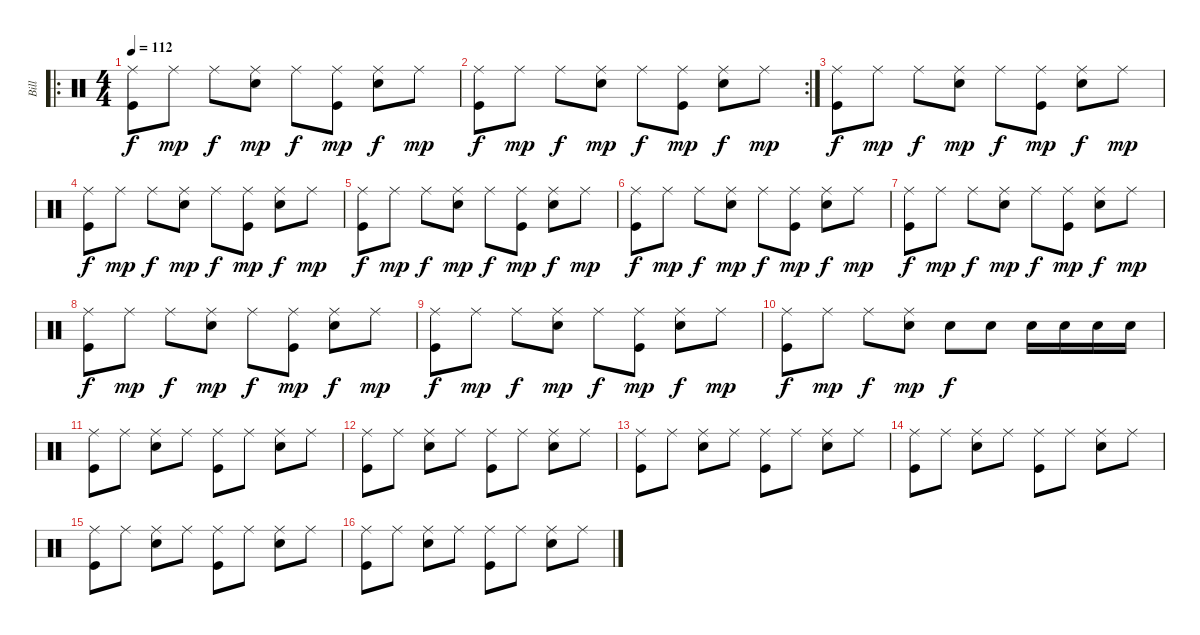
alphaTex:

\track ("Bill" "Bill") {instrument percussion}
\staff {score}
\articulation defaults
\ro
\ts (4 4)
\tempo 112
\clef neutral
\ks c
("Ride (middle)" "Kick (hit)").8{dy f} "Ride (middle)".8{dy mp} "Ride (middle)".8{dy f} ("Ride (middle)" "Snare (hit) 2").8{dy mp} "Ride (middle)".8{dy f} ("Ride (middle)" "Kick (hit)").8{dy mp} ("Ride (middle)" "Snare (hit) 2").8{dy f} "Ride (middle)".8{dy mp} |
\rc 2
("Ride (middle)" "Kick (hit)").8{dy f} "Ride (middle)".8{dy mp} "Ride (middle)".8{dy f} ("Ride (middle)" "Snare (hit) 2").8{dy mp} "Ride (middle)".8{dy f} ("Ride (middle)" "Kick (hit)").8{dy mp} ("Ride (middle)" "Snare (hit) 2").8{dy f} "Ride (middle)".8{dy mp} |
("Ride (middle)" "Kick (hit)").8{dy f} "Ride (middle)".8{dy mp} "Ride (middle)".8{dy f} ("Ride (middle)" "Snare (hit) 2").8{dy mp} "Ride (middle)".8{dy f} ("Ride (middle)" "Kick (hit)").8{dy mp} ("Ride (middle)" "Snare (hit) 2").8{dy f} "Ride (middle)".8{dy mp} |
("Ride (middle)" "Kick (hit)").8{dy f} "Ride (middle)".8{dy mp} "Ride (middle)".8{dy f} ("Ride (middle)" "Snare (hit) 2").8{dy mp} "Ride (middle)".8{dy f} ("Ride (middle)" "Kick (hit)").8{dy mp} ("Ride (middle)" "Snare (hit) 2").8{dy f} "Ride (middle)".8{dy mp} |
("Ride (middle)" "Kick (hit)").8{dy f} "Ride (middle)".8{dy mp} "Ride (middle)".8{dy f} ("Ride (middle)" "Snare (hit) 2").8{dy mp} "Ride (middle)".8{dy f} ("Ride (middle)" "Kick (hit)").8{dy mp} ("Ride (middle)" "Snare (hit) 2").8{dy f} "Ride (middle)".8{dy mp} |
("Ride (middle)" "Kick (hit)").8{dy f} "Ride (middle)".8{dy mp} "Ride (middle)".8{dy f} ("Ride (middle)" "Snare (hit) 2").8{dy mp} "Ride (middle)".8{dy f} ("Ride (middle)" "Kick (hit)").8{dy mp} ("Ride (middle)" "Snare (hit) 2").8{dy f} "Ride (middle)".8{dy mp} |
("Ride (middle)" "Kick (hit)").8{dy f} "Ride (middle)".8{dy mp} "Ride (middle)".8{dy f} ("Ride (middle)" "Snare (hit) 2").8{dy mp} "Ride (middle)".8{dy f} ("Ride (middle)" "Kick (hit)").8{dy mp} ("Ride (middle)" "Snare (hit) 2").8{dy f} "Ride (middle)".8{dy mp} |
("Ride (middle)" "Kick (hit)").8{dy f} "Ride (middle)".8{dy mp} "Ride (middle)".8{dy f} ("Ride (middle)" "Snare (hit) 2").8{dy mp} "Ride (middle)".8{dy f} ("Ride (middle)" "Kick (hit)").8{dy mp} ("Ride (middle)" "Snare (hit) 2").8{dy f} "Ride (middle)".8{dy mp} |
("Ride (middle)" "Kick (hit)").8{dy f} "Ride (middle)".8{dy mp} "Ride (middle)".8{dy f} ("Ride (middle)" "Snare (hit) 2").8{dy mp} "Ride (middle)".8{dy f} ("Ride (middle)" "Kick (hit)").8{dy mp} ("Ride (middle)" "Snare (hit) 2").8{dy f} "Ride (middle)".8{dy mp} |
("Ride (middle)" "Kick (hit)").8{dy f} "Ride (middle)".8{dy mp} "Ride (middle)".8{dy f} ("Ride (middle)" "Snare (hit) 2").8{dy mp} "Snare (hit) 2".8{dy f} "Snare (hit) 2".8 "Snare (hit) 2".16 "Snare (hit) 2".16 "Snare (hit) 2".16 "Snare (hit) 2".16 |
("Ride (middle)" "Kick (hit)").8 "Ride (middle)".8 ("Ride (middle)" "Snare (hit) 2").8 "Ride (middle)".8 ("Ride (middle)" "Kick (hit)").8 "Ride (middle)".8 ("Ride (middle)" "Snare (hit) 2").8 "Ride (middle)".8 |
("Ride (middle)" "Kick (hit)").8 "Ride (middle)".8 ("Ride (middle)" "Snare (hit) 2").8 "Ride (middle)".8 ("Ride (middle)" "Kick (hit)").8 "Ride (middle)".8 ("Ride (middle)" "Snare (hit) 2").8 "Ride (middle)".8 |
("Ride (middle)" "Kick (hit)").8 "Ride (middle)".8 ("Ride (middle)" "Snare (hit) 2").8 "Ride (middle)".8 ("Ride (middle)" "Kick (hit)").8 "Ride (middle)".8 ("Ride (middle)" "Snare (hit) 2").8 "Ride (middle)".8 |
("Ride (middle)" "Kick (hit)").8 "Ride (middle)".8 ("Ride (middle)" "Snare (hit) 2").8 "Ride (middle)".8 ("Ride (middle)" "Kick (hit)").8 "Ride (middle)".8 ("Ride (middle)" "Snare (hit) 2").8 "Ride (middle)".8 |
("Ride (middle)" "Kick (hit)").8 "Ride (middle)".8 ("Ride (middle)" "Snare (hit) 2").8 "Ride (middle)".8 ("Ride (middle)" "Kick (hit)").8 "Ride (middle)".8 ("Ride (middle)" "Snare (hit) 2").8 "Ride (middle)".8 |
("Ride (middle)" "Kick (hit)").8 "Ride (middle)".8 ("Ride (middle)" "Snare (hit) 2").8 "Ride (middle)".8 ("Ride (middle)" "Kick (hit)").8 "Ride (middle)".8 ("Ride (middle)" "Snare (hit) 2").8 "Ride (middle)".8
